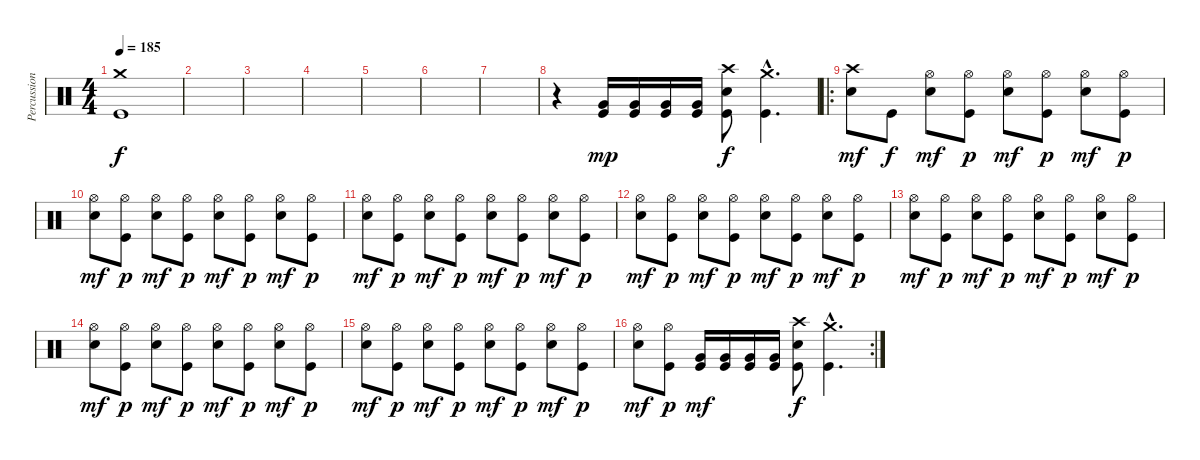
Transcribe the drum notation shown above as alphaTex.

\track ("Percussions" "Percussion") {instrument percussion}
\staff {score}
\articulation defaults
\ts (4 4)
\tempo 185
\clef neutral
\ks c
("Kick (hit)" "Crash medium (hit)").1{dy f} |
|
|
|
|
|
|
r.4 ("Kick (hit)" "Very Low Tom (hit)").16{dy mp} ("Kick (hit)" "Very Low Tom (hit)").16 ("Kick (hit)" "Very Low Tom (hit)").16 ("Kick (hit)" "Very Low Tom (hit)").16 ("Kick (hit)" "Electric Snare (hit)" "Crash high (hit)").8{dy f} ("Kick (hit)"{hac} "Crash medium (hit)"{hac}).4{d} |
\ro
("Electric Snare (hit)" "Crash high (hit)").8{dy mf} "Kick (hit)".8{dy f} ("Electric Snare (hit)" "Hi-Hat (open)").8{dy mf} ("Kick (hit)" "Hi-Hat (open)").8{dy p} ("Electric Snare (hit)" "Hi-Hat (open)").8{dy mf} ("Kick (hit)" "Hi-Hat (open)").8{dy p} ("Electric Snare (hit)" "Hi-Hat (open)").8{dy mf} ("Kick (hit)" "Hi-Hat (open)").8{dy p} |
("Electric Snare (hit)" "Hi-Hat (open)").8{dy mf} ("Kick (hit)" "Hi-Hat (open)").8{dy p} ("Electric Snare (hit)" "Hi-Hat (open)").8{dy mf} ("Kick (hit)" "Hi-Hat (open)").8{dy p} ("Electric Snare (hit)" "Hi-Hat (open)").8{dy mf} ("Kick (hit)" "Hi-Hat (open)").8{dy p} ("Electric Snare (hit)" "Hi-Hat (open)").8{dy mf} ("Kick (hit)" "Hi-Hat (open)").8{dy p} |
("Electric Snare (hit)" "Hi-Hat (open)").8{dy mf} ("Kick (hit)" "Hi-Hat (open)").8{dy p} ("Electric Snare (hit)" "Hi-Hat (open)").8{dy mf} ("Kick (hit)" "Hi-Hat (open)").8{dy p} ("Electric Snare (hit)" "Hi-Hat (open)").8{dy mf} ("Kick (hit)" "Hi-Hat (open)").8{dy p} ("Electric Snare (hit)" "Hi-Hat (open)").8{dy mf} ("Kick (hit)" "Hi-Hat (open)").8{dy p} |
("Electric Snare (hit)" "Hi-Hat (open)").8{dy mf} ("Kick (hit)" "Hi-Hat (open)").8{dy p} ("Electric Snare (hit)" "Hi-Hat (open)").8{dy mf} ("Kick (hit)" "Hi-Hat (open)").8{dy p} ("Electric Snare (hit)" "Hi-Hat (open)").8{dy mf} ("Kick (hit)" "Hi-Hat (open)").8{dy p} ("Electric Snare (hit)" "Hi-Hat (open)").8{dy mf} ("Kick (hit)" "Hi-Hat (open)").8{dy p} |
("Electric Snare (hit)" "Hi-Hat (open)").8{dy mf} ("Kick (hit)" "Hi-Hat (open)").8{dy p} ("Electric Snare (hit)" "Hi-Hat (open)").8{dy mf} ("Kick (hit)" "Hi-Hat (open)").8{dy p} ("Electric Snare (hit)" "Hi-Hat (open)").8{dy mf} ("Kick (hit)" "Hi-Hat (open)").8{dy p} ("Electric Snare (hit)" "Hi-Hat (open)").8{dy mf} ("Kick (hit)" "Hi-Hat (open)").8{dy p} |
("Electric Snare (hit)" "Hi-Hat (open)").8{dy mf} ("Kick (hit)" "Hi-Hat (open)").8{dy p} ("Electric Snare (hit)" "Hi-Hat (open)").8{dy mf} ("Kick (hit)" "Hi-Hat (open)").8{dy p} ("Electric Snare (hit)" "Hi-Hat (open)").8{dy mf} ("Kick (hit)" "Hi-Hat (open)").8{dy p} ("Electric Snare (hit)" "Hi-Hat (open)").8{dy mf} ("Kick (hit)" "Hi-Hat (open)").8{dy p} |
("Electric Snare (hit)" "Hi-Hat (open)").8{dy mf} ("Kick (hit)" "Hi-Hat (open)").8{dy p} ("Electric Snare (hit)" "Hi-Hat (open)").8{dy mf} ("Kick (hit)" "Hi-Hat (open)").8{dy p} ("Electric Snare (hit)" "Hi-Hat (open)").8{dy mf} ("Kick (hit)" "Hi-Hat (open)").8{dy p} ("Electric Snare (hit)" "Hi-Hat (open)").8{dy mf} ("Kick (hit)" "Hi-Hat (open)").8{dy p} |
\rc 2
("Electric Snare (hit)" "Hi-Hat (open)").8{dy mf} ("Kick (hit)" "Hi-Hat (open)").8{dy p} ("Kick (hit)" "Very Low Tom (hit)").16{dy mf} ("Kick (hit)" "Very Low Tom (hit)").16 ("Kick (hit)" "Very Low Tom (hit)").16 ("Kick (hit)" "Very Low Tom (hit)").16 ("Kick (hit)" "Electric Snare (hit)" "Crash high (hit)").8{dy f} ("Kick (hit)"{hac} "Crash medium (hit)"{hac}).4{d}
